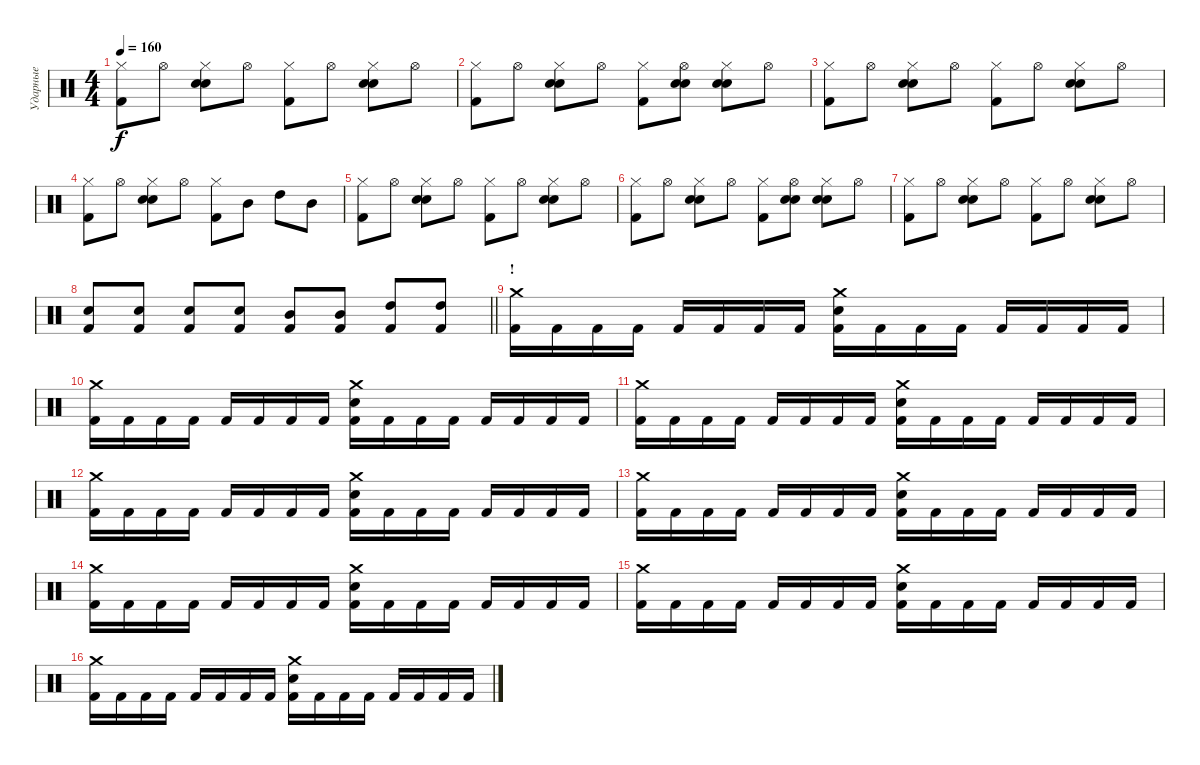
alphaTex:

\track ("Ударные" "Ударные") {instrument percussion}
\staff {score}
\articulation defaults
\ts (4 4)
\tempo 160
\clef neutral
\ks c
("Hi-Hat (closed)" "Kick (hit) 2").8{dy f} "Hi-Hat (open)".8 ("Hi-Hat (closed)" "Snare (hit) 2" "Hand Clap (hit)").8 "Hi-Hat (open)".8 ("Hi-Hat (closed)" "Kick (hit) 2").8 "Hi-Hat (open)".8 ("Hi-Hat (closed)" "Snare (hit) 2" "Hand Clap (hit)").8 "Hi-Hat (open)".8 |
("Hi-Hat (closed)" "Kick (hit) 2").8 "Hi-Hat (open)".8 ("Hi-Hat (closed)" "Snare (hit) 2" "Hand Clap (hit)").8 "Hi-Hat (open)".8 ("Hi-Hat (closed)" "Kick (hit) 2").8 ("Hi-Hat (open)" "Snare (hit) 2" "Hand Clap (hit)").8 ("Hi-Hat (closed)" "Snare (hit) 2" "Hand Clap (hit)").8 "Hi-Hat (open)".8 |
("Hi-Hat (closed)" "Kick (hit) 2").8 "Hi-Hat (open)".8 ("Hi-Hat (closed)" "Snare (hit) 2" "Hand Clap (hit)").8 "Hi-Hat (open)".8 ("Hi-Hat (closed)" "Kick (hit) 2").8 "Hi-Hat (open)".8 ("Hi-Hat (closed)" "Snare (hit) 2" "Hand Clap (hit)").8 "Hi-Hat (open)".8 |
("Hi-Hat (closed)" "Kick (hit) 2").8 "Hi-Hat (open)".8 ("Hi-Hat (closed)" "Snare (hit) 2" "Hand Clap (hit)").8 "Hi-Hat (open)".8 ("Hi-Hat (closed)" "Kick (hit) 2").8 "Mid Tom (hit)".8 "High Tom (hit)".8 "Mid Tom (hit)".8 |
("Hi-Hat (closed)" "Kick (hit) 2").8 "Hi-Hat (open)".8 ("Hi-Hat (closed)" "Snare (hit) 2" "Hand Clap (hit)").8 "Hi-Hat (open)".8 ("Hi-Hat (closed)" "Kick (hit) 2").8 "Hi-Hat (open)".8 ("Hi-Hat (closed)" "Snare (hit) 2" "Hand Clap (hit)").8 "Hi-Hat (open)".8 |
("Hi-Hat (closed)" "Kick (hit) 2").8 "Hi-Hat (open)".8 ("Hi-Hat (closed)" "Snare (hit) 2" "Hand Clap (hit)").8 "Hi-Hat (open)".8 ("Hi-Hat (closed)" "Kick (hit) 2").8 ("Hi-Hat (open)" "Snare (hit) 2" "Hand Clap (hit)").8 ("Hi-Hat (closed)" "Snare (hit) 2" "Hand Clap (hit)").8 "Hi-Hat (open)".8 |
("Hi-Hat (closed)" "Kick (hit) 2").8 "Hi-Hat (open)".8 ("Hi-Hat (closed)" "Snare (hit) 2" "Hand Clap (hit)").8 "Hi-Hat (open)".8 ("Hi-Hat (closed)" "Kick (hit) 2").8 "Hi-Hat (open)".8 ("Hi-Hat (closed)" "Snare (hit) 2" "Hand Clap (hit)").8 "Hi-Hat (open)".8 |
\barLineRight lightlight
("Kick (hit) 2" "Electric Snare (hit)").8 ("Kick (hit) 2" "Electric Snare (hit)").8 ("Kick (hit) 2" "Snare (hit) 2").8 ("Kick (hit) 2" "Snare (hit) 2").8 ("Kick (hit) 2" "Mid Tom (hit)").8 ("Kick (hit) 2" "Mid Tom (hit)").8 ("Kick (hit) 2" "High Tom (hit)").8 ("Kick (hit) 2" "High Tom (hit)").8 |
\section ("" "!")
("Kick (hit) 2" "Crash medium (hit)").16 "Kick (hit) 2".16 "Kick (hit) 2".16 "Kick (hit) 2".16 "Kick (hit) 2".16 "Kick (hit) 2".16 "Kick (hit) 2".16 "Kick (hit) 2".16 ("Kick (hit) 2" "Crash medium (hit)" "Snare (hit) 2").16 "Kick (hit) 2".16 "Kick (hit) 2".16 "Kick (hit) 2".16 "Kick (hit) 2".16 "Kick (hit) 2".16 "Kick (hit) 2".16 "Kick (hit) 2".16 |
("Kick (hit) 2" "Crash medium (hit)").16 "Kick (hit) 2".16 "Kick (hit) 2".16 "Kick (hit) 2".16 "Kick (hit) 2".16 "Kick (hit) 2".16 "Kick (hit) 2".16 "Kick (hit) 2".16 ("Kick (hit) 2" "Crash medium (hit)" "Snare (hit) 2").16 "Kick (hit) 2".16 "Kick (hit) 2".16 "Kick (hit) 2".16 "Kick (hit) 2".16 "Kick (hit) 2".16 "Kick (hit) 2".16 "Kick (hit) 2".16 |
("Kick (hit) 2" "Crash medium (hit)").16 "Kick (hit) 2".16 "Kick (hit) 2".16 "Kick (hit) 2".16 "Kick (hit) 2".16 "Kick (hit) 2".16 "Kick (hit) 2".16 "Kick (hit) 2".16 ("Kick (hit) 2" "Crash medium (hit)" "Snare (hit) 2").16 "Kick (hit) 2".16 "Kick (hit) 2".16 "Kick (hit) 2".16 "Kick (hit) 2".16 "Kick (hit) 2".16 "Kick (hit) 2".16 "Kick (hit) 2".16 |
("Kick (hit) 2" "Crash medium (hit)").16 "Kick (hit) 2".16 "Kick (hit) 2".16 "Kick (hit) 2".16 "Kick (hit) 2".16 "Kick (hit) 2".16 "Kick (hit) 2".16 "Kick (hit) 2".16 ("Kick (hit) 2" "Crash medium (hit)" "Snare (hit) 2").16 "Kick (hit) 2".16 "Kick (hit) 2".16 "Kick (hit) 2".16 "Kick (hit) 2".16 "Kick (hit) 2".16 "Kick (hit) 2".16 "Kick (hit) 2".16 |
("Kick (hit) 2" "Crash medium (hit)").16 "Kick (hit) 2".16 "Kick (hit) 2".16 "Kick (hit) 2".16 "Kick (hit) 2".16 "Kick (hit) 2".16 "Kick (hit) 2".16 "Kick (hit) 2".16 ("Kick (hit) 2" "Crash medium (hit)" "Snare (hit) 2").16 "Kick (hit) 2".16 "Kick (hit) 2".16 "Kick (hit) 2".16 "Kick (hit) 2".16 "Kick (hit) 2".16 "Kick (hit) 2".16 "Kick (hit) 2".16 |
("Kick (hit) 2" "Crash medium (hit)").16 "Kick (hit) 2".16 "Kick (hit) 2".16 "Kick (hit) 2".16 "Kick (hit) 2".16 "Kick (hit) 2".16 "Kick (hit) 2".16 "Kick (hit) 2".16 ("Kick (hit) 2" "Crash medium (hit)" "Snare (hit) 2").16 "Kick (hit) 2".16 "Kick (hit) 2".16 "Kick (hit) 2".16 "Kick (hit) 2".16 "Kick (hit) 2".16 "Kick (hit) 2".16 "Kick (hit) 2".16 |
("Kick (hit) 2" "Crash medium (hit)").16 "Kick (hit) 2".16 "Kick (hit) 2".16 "Kick (hit) 2".16 "Kick (hit) 2".16 "Kick (hit) 2".16 "Kick (hit) 2".16 "Kick (hit) 2".16 ("Kick (hit) 2" "Crash medium (hit)" "Snare (hit) 2").16 "Kick (hit) 2".16 "Kick (hit) 2".16 "Kick (hit) 2".16 "Kick (hit) 2".16 "Kick (hit) 2".16 "Kick (hit) 2".16 "Kick (hit) 2".16 |
("Kick (hit) 2" "Crash medium (hit)").16 "Kick (hit) 2".16 "Kick (hit) 2".16 "Kick (hit) 2".16 "Kick (hit) 2".16 "Kick (hit) 2".16 "Kick (hit) 2".16 "Kick (hit) 2".16 ("Kick (hit) 2" "Crash medium (hit)" "Snare (hit) 2").16 "Kick (hit) 2".16 "Kick (hit) 2".16 "Kick (hit) 2".16 "Kick (hit) 2".16 "Kick (hit) 2".16 "Kick (hit) 2".16 "Kick (hit) 2".16
